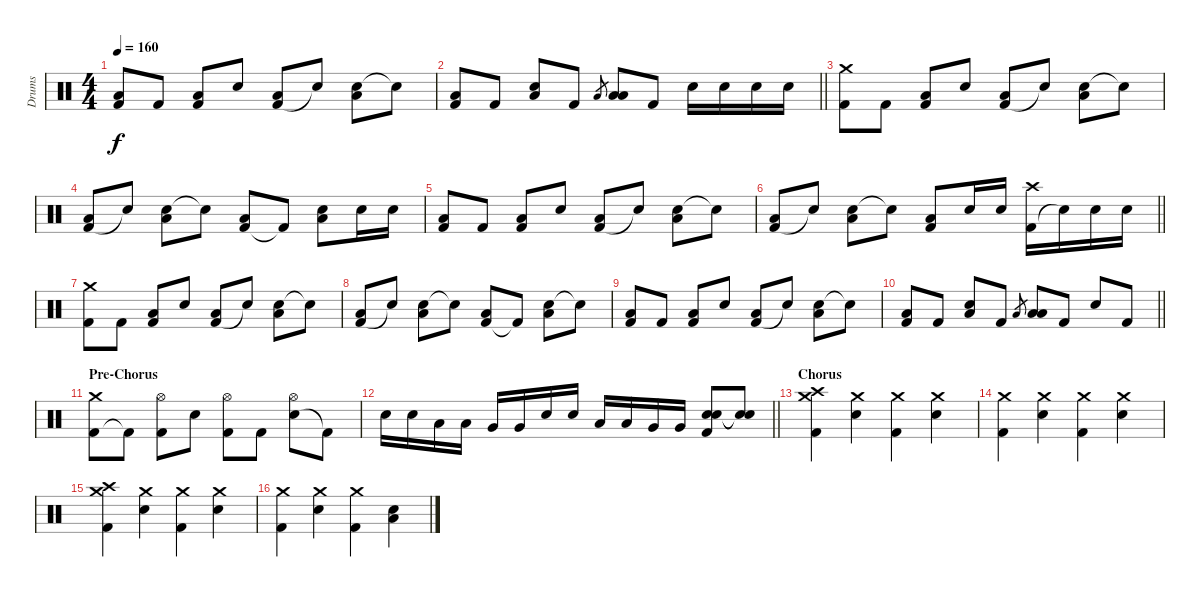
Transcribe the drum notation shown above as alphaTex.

\track ("Drums" "Drums") {instrument percussion}
\staff {score}
\articulation defaults
\ts (4 4)
\tempo 160
\clef neutral
\ks c
("Kick (hit) 2" "Low Floor Tom (hit)").8{dy f} "Kick (hit) 2".8 ("Kick (hit) 2" "Low Floor Tom (hit)").8 "Electric Snare (hit)".8 ("Kick (hit) 2" "Low Floor Tom (hit)").8 "Snare (hit)"{t}.8 ("Electric Snare (hit)" "Low Floor Tom (hit)").8 "Snare (hit)"{t}.8 |
\barLineRight lightlight
("Kick (hit) 2" "Low Floor Tom (hit)").8 "Kick (hit) 2".8 ("Electric Snare (hit)" "Low Floor Tom (hit)").8 "Kick (hit) 2".8 "Low Tom (hit)".8{gr} ("Low Tom (hit)" "Low Floor Tom (hit)").8 "Kick (hit) 2".8 "Electric Snare (hit)".16 "Electric Snare (hit)".16 "Electric Snare (hit)".16 "Electric Snare (hit)".16 |
("Kick (hit) 2" "Crash medium (hit)").8 "Kick (hit) 2".8 ("Kick (hit) 2" "Low Floor Tom (hit)").8 "Electric Snare (hit)".8 ("Kick (hit) 2" "Low Floor Tom (hit)").8 "Snare (hit)"{t}.8 ("Electric Snare (hit)" "Low Floor Tom (hit)").8 "Snare (hit)"{t}.8 |
("Kick (hit) 2" "Low Floor Tom (hit)").8 "Snare (hit)"{t}.8 ("Electric Snare (hit)" "Low Floor Tom (hit)").8 "Snare (hit)"{t}.8 ("Kick (hit) 2" "Low Floor Tom (hit)").8 "Kick (hit) 2"{t}.8 ("Electric Snare (hit)" "Low Floor Tom (hit)").8 "Electric Snare (hit)".16 "Electric Snare (hit)".16 |
("Kick (hit) 2" "Low Floor Tom (hit)").8 "Kick (hit) 2".8 ("Kick (hit) 2" "Low Floor Tom (hit)").8 "Electric Snare (hit)".8 ("Kick (hit) 2" "Low Floor Tom (hit)").8 "Snare (hit)"{t}.8 ("Electric Snare (hit)" "Low Floor Tom (hit)").8 "Snare (hit)"{t}.8 |
\barLineRight lightlight
("Kick (hit) 2" "Low Floor Tom (hit)").8 "Snare (hit)"{t}.8 ("Electric Snare (hit)" "Low Floor Tom (hit)").8 "Snare (hit)"{t}.8 ("Kick (hit) 2" "Low Floor Tom (hit)").8 "Electric Snare (hit)".16 "Electric Snare (hit)".16 ("Kick (hit) 2" "Crash high (hit)").16 "Snare (hit)"{t}.16 "Electric Snare (hit)".16 "Electric Snare (hit)".16 |
("Kick (hit) 2" "Crash medium (hit)").8 "Kick (hit) 2".8 ("Kick (hit) 2" "Low Floor Tom (hit)").8 "Electric Snare (hit)".8 ("Kick (hit) 2" "Low Floor Tom (hit)").8 "Snare (hit)"{t}.8 ("Electric Snare (hit)" "Low Floor Tom (hit)").8 "Snare (hit)"{t}.8 |
("Kick (hit) 2" "Low Floor Tom (hit)").8 "Snare (hit)"{t}.8 ("Electric Snare (hit)" "Low Floor Tom (hit)").8 "Snare (hit)"{t}.8 ("Kick (hit) 2" "Low Floor Tom (hit)").8 "Kick (hit) 2"{t}.8 ("Electric Snare (hit)" "Low Floor Tom (hit)").8 "Snare (hit)"{t}.8 |
("Kick (hit) 2" "Low Floor Tom (hit)").8 "Kick (hit) 2".8 ("Kick (hit) 2" "Low Floor Tom (hit)").8 "Electric Snare (hit)".8 ("Kick (hit) 2" "Low Floor Tom (hit)").8 "Snare (hit)"{t}.8 ("Electric Snare (hit)" "Low Floor Tom (hit)").8 "Snare (hit)"{t}.8 |
\barLineRight lightlight
("Kick (hit) 2" "Low Floor Tom (hit)").8 "Kick (hit) 2".8 ("Electric Snare (hit)" "Low Floor Tom (hit)").8 "Kick (hit) 2".8 "Low Tom (hit)".8{gr} ("Low Tom (hit)" "Low Floor Tom (hit)").8 "Kick (hit) 2".8 "Electric Snare (hit)".8 "Kick (hit) 2".8 |
\section ("" "Pre-Chorus")
("Kick (hit) 2" "Crash medium (hit)").8 "Kick (hit) 2"{t}.8 ("Kick (hit) 2" "Hi-Hat (open)").8 "Electric Snare (hit)".8 ("Kick (hit) 2" "Hi-Hat (open)").8 "Kick (hit) 2".8 ("Electric Snare (hit)" "Hi-Hat (open)").8 "Kick (hit) 2"{t}.8 |
\barLineRight lightlight "Electric Snare (hit)".16 "Electric Snare (hit)".16 "Low Tom (hit)".16 "Low Tom (hit)".16 "Very Low Tom (hit)".16 "Very Low Tom (hit)".16 "Electric Snare (hit)".16 "Electric Snare (hit)".16 "Low Tom (hit)".16 "Low Tom (hit)".16 "Very Low Tom (hit)".16 "Very Low Tom (hit)".16
("Electric Snare (hit)" "Electric Snare (hit)" "Kick (hit) 2").8 ("Snare (hit)"{t} "Snare (hit)"{t}).8 |
\section ("" "Chorus")
("Kick (hit) 2" "Crash medium (hit)" "Crash high (hit)").4 ("Electric Snare (hit)" "Crash medium (hit)").4 ("Kick (hit) 2" "Crash medium (hit)").4 ("Electric Snare (hit)" "Crash medium (hit)").4 |
("Kick (hit) 2" "Crash medium (hit)").4 ("Electric Snare (hit)" "Crash medium (hit)").4 ("Kick (hit) 2" "Crash medium (hit)").4 ("Electric Snare (hit)" "Crash medium (hit)").4 |
("Kick (hit) 2" "Crash medium (hit)" "Crash high (hit)").4 ("Electric Snare (hit)" "Crash medium (hit)").4 ("Kick (hit) 2" "Crash medium (hit)").4 ("Electric Snare (hit)" "Crash medium (hit)").4 |
("Kick (hit) 2" "Crash medium (hit)").4 ("Electric Snare (hit)" "Crash medium (hit)").4 ("Kick (hit) 2" "Crash medium (hit)").4 ("Electric Snare (hit)" "Low Floor Tom (hit)").4
